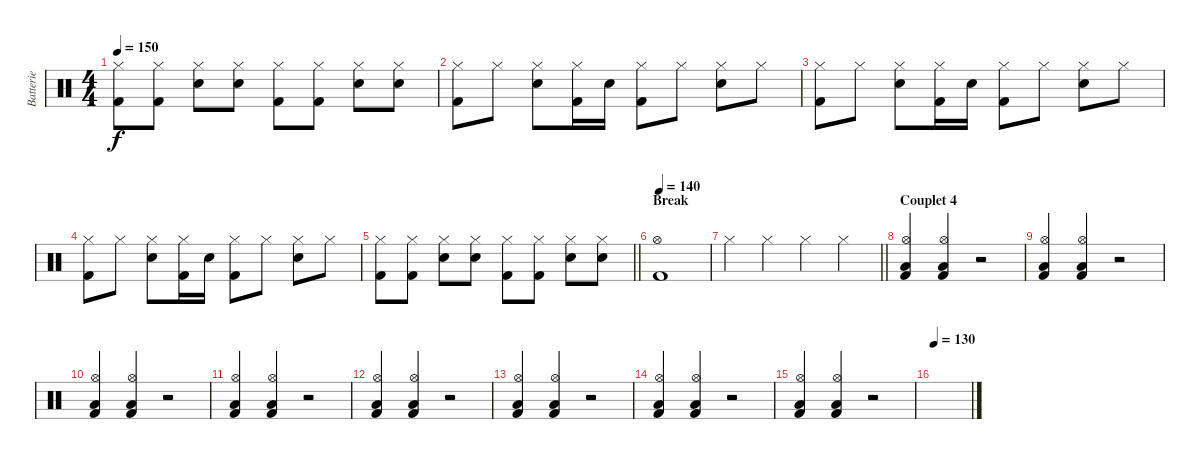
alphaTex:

\track ("Batterie" "Batterie") {instrument percussion}
\staff {score}
\articulation defaults
\ts (4 4)
\tempo 150
\clef neutral
\ks c
("Hi-Hat (closed)" "Kick (hit) 2").8{dy f} ("Hi-Hat (closed)" "Kick (hit) 2").8 ("Hi-Hat (closed)" "Electric Snare (hit)").8 ("Hi-Hat (closed)" "Electric Snare (hit)").8 ("Hi-Hat (closed)" "Kick (hit) 2").8 ("Hi-Hat (closed)" "Kick (hit) 2").8 ("Hi-Hat (closed)" "Electric Snare (hit)").8 ("Hi-Hat (closed)" "Electric Snare (hit)").8 |
("Hi-Hat (closed)" "Kick (hit) 2").8 "Hi-Hat (closed)".8 ("Hi-Hat (closed)" "Electric Snare (hit)").8 ("Hi-Hat (closed)" "Kick (hit) 2").16 "Electric Snare (hit)".16 ("Hi-Hat (closed)" "Kick (hit) 2").8 "Hi-Hat (closed)".8 ("Hi-Hat (closed)" "Electric Snare (hit)").8 "Hi-Hat (closed)".8 |
("Hi-Hat (closed)" "Kick (hit) 2").8 "Hi-Hat (closed)".8 ("Hi-Hat (closed)" "Electric Snare (hit)").8 ("Hi-Hat (closed)" "Kick (hit) 2").16 "Electric Snare (hit)".16 ("Hi-Hat (closed)" "Kick (hit) 2").8 "Hi-Hat (closed)".8 ("Hi-Hat (closed)" "Electric Snare (hit)").8 "Hi-Hat (closed)".8 |
("Hi-Hat (closed)" "Kick (hit) 2").8 "Hi-Hat (closed)".8 ("Hi-Hat (closed)" "Electric Snare (hit)").8 ("Hi-Hat (closed)" "Kick (hit) 2").16 "Electric Snare (hit)".16 ("Hi-Hat (closed)" "Kick (hit) 2").8 "Hi-Hat (closed)".8 ("Hi-Hat (closed)" "Electric Snare (hit)").8 "Hi-Hat (closed)".8 |
\barLineRight lightlight
("Hi-Hat (closed)" "Kick (hit) 2").8 ("Hi-Hat (closed)" "Kick (hit) 2").8 ("Hi-Hat (closed)" "Electric Snare (hit)").8 ("Hi-Hat (closed)" "Electric Snare (hit)").8 ("Hi-Hat (closed)" "Kick (hit) 2").8 ("Hi-Hat (closed)" "Kick (hit) 2").8 ("Hi-Hat (closed)" "Electric Snare (hit)").8 ("Hi-Hat (closed)" "Electric Snare (hit)").8 |
\section ("" "Break")
\tempo 140
("Hi-Hat (open)" "Kick (hit) 2").1 |
\barLineRight lightlight "Hi-Hat (closed)".4 "Hi-Hat (closed)".4 "Hi-Hat (closed)".4 "Hi-Hat (closed)".4
|
\section ("" "Couplet 4")
("Hi-Hat (open)" "Low Floor Tom (hit)" "Kick (hit) 2").4 ("Hi-Hat (open)" "Low Floor Tom (hit)" "Kick (hit) 2").4 r.2 |
("Hi-Hat (open)" "Low Floor Tom (hit)" "Kick (hit) 2").4 ("Hi-Hat (open)" "Low Floor Tom (hit)" "Kick (hit) 2").4 r.2 |
("Hi-Hat (open)" "Low Floor Tom (hit)" "Kick (hit) 2").4 ("Hi-Hat (open)" "Low Floor Tom (hit)" "Kick (hit) 2").4 r.2 |
("Hi-Hat (open)" "Low Floor Tom (hit)" "Kick (hit) 2").4 ("Hi-Hat (open)" "Low Floor Tom (hit)" "Kick (hit) 2").4 r.2 |
("Hi-Hat (open)" "Low Floor Tom (hit)" "Kick (hit) 2").4 ("Hi-Hat (open)" "Low Floor Tom (hit)" "Kick (hit) 2").4 r.2 |
("Hi-Hat (open)" "Low Floor Tom (hit)" "Kick (hit) 2").4 ("Hi-Hat (open)" "Low Floor Tom (hit)" "Kick (hit) 2").4 r.2 |
("Hi-Hat (open)" "Low Floor Tom (hit)" "Kick (hit) 2").4 ("Hi-Hat (open)" "Low Floor Tom (hit)" "Kick (hit) 2").4 r.2 |
("Hi-Hat (open)" "Low Floor Tom (hit)" "Kick (hit) 2").4 ("Hi-Hat (open)" "Low Floor Tom (hit)" "Kick (hit) 2").4 r.2 |
\tempo 130
